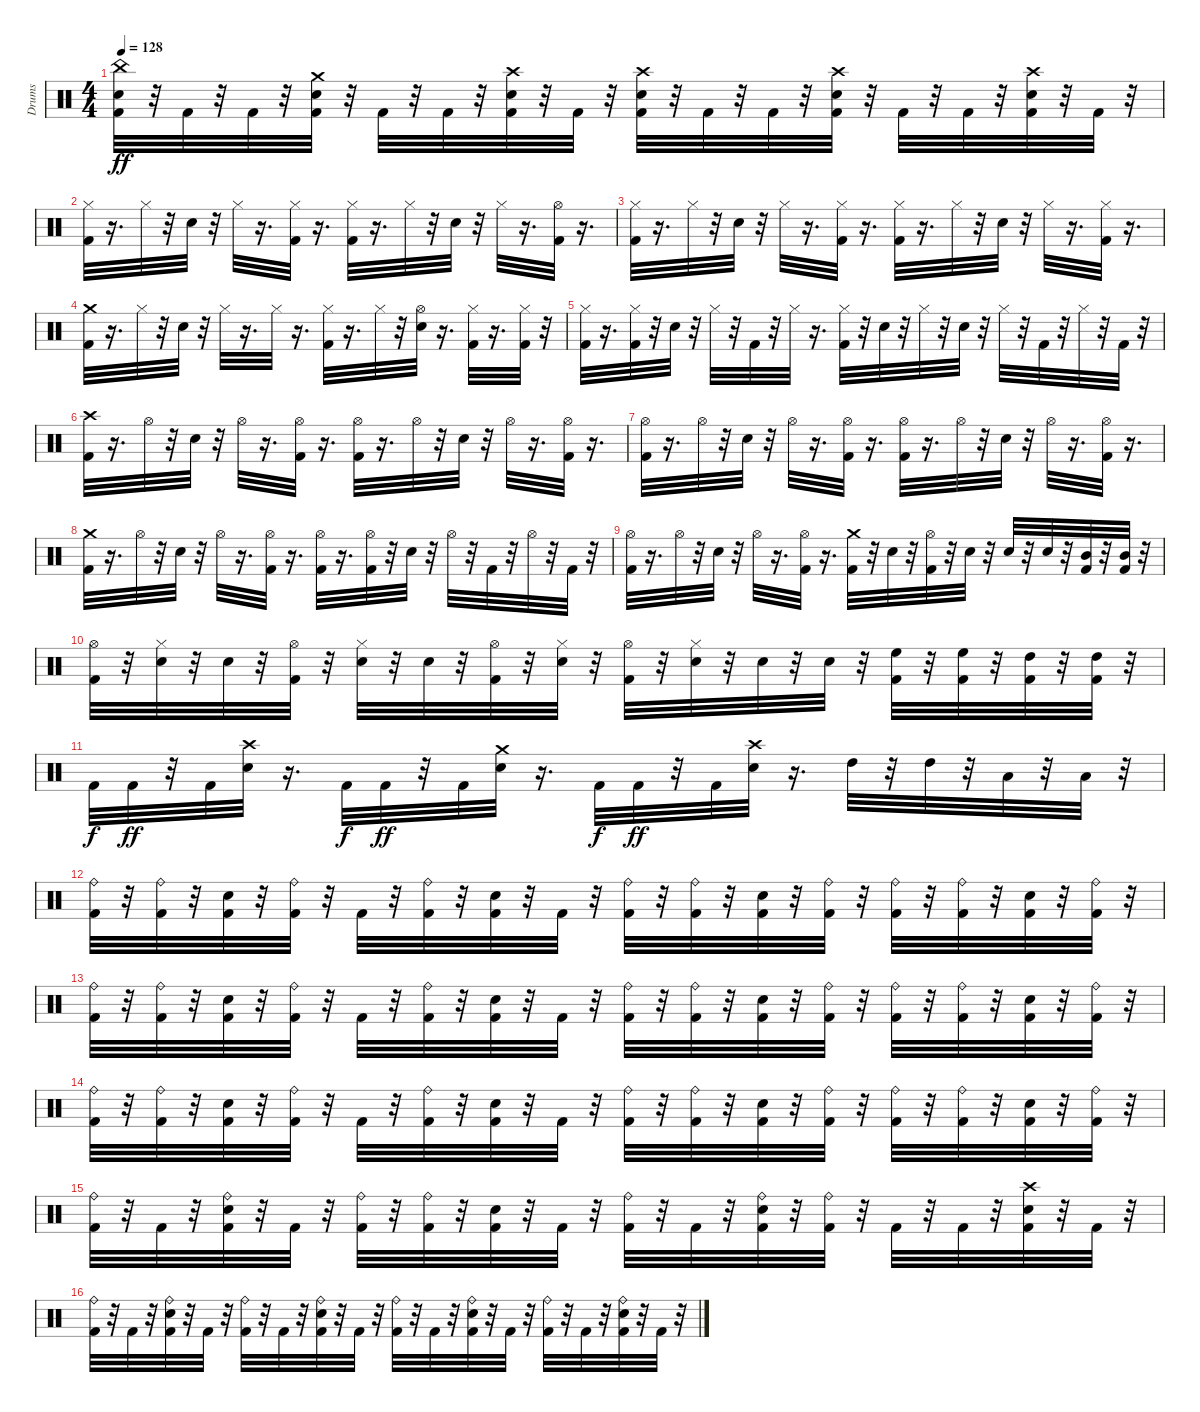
\track ("Drums" "Drums") {instrument percussion}
\staff {score}
\articulation defaults
\ts (4 4)
\tempo 128
\clef neutral
\ks c
("China (hit)" "Snare (hit) 2" "Kick (hit) 2").32{dy ff} r.32 "Kick (hit) 2".32 r.32 "Kick (hit) 2".32 r.32 ("Crash medium (hit)" "Snare (hit) 2" "Kick (hit) 2").32 r.32 "Kick (hit) 2".32 r.32 "Kick (hit) 2".32 r.32 ("Crash high (hit)" "Snare (hit) 2" "Kick (hit) 2").32 r.32 "Kick (hit) 2".32 r.32 ("Crash high (hit)" "Snare (hit) 2" "Kick (hit) 2").32 r.32 "Kick (hit) 2".32 r.32 "Kick (hit) 2".32 r.32 ("Crash high (hit)" "Snare (hit) 2" "Kick (hit) 2").32 r.32 "Kick (hit) 2".32 r.32 "Kick (hit) 2".32 r.32 ("Crash high (hit)" "Snare (hit) 2" "Kick (hit) 2").32 r.32 "Kick (hit) 2".32 r.32 |
("Kick (hit) 2" "Hi-Hat (closed)").32 r.16{d} "Hi-Hat (closed)".32 r.32 "Snare (hit) 2".32 r.32 "Hi-Hat (closed)".32 r.16{d} ("Hi-Hat (closed)" "Kick (hit) 2").32 r.16{d} ("Hi-Hat (closed)" "Kick (hit) 2").32 r.16{d} "Hi-Hat (closed)".32 r.32 "Snare (hit) 2".32 r.32 "Hi-Hat (closed)".32 r.16{d} ("Kick (hit) 2" "Hi-Hat (open)").32 r.16{d} |
("Kick (hit) 2" "Hi-Hat (closed)").32 r.16{d} "Hi-Hat (closed)".32 r.32 "Snare (hit) 2".32 r.32 "Hi-Hat (closed)".32 r.16{d} ("Kick (hit) 2" "Hi-Hat (closed)").32 r.16{d} ("Kick (hit) 2" "Hi-Hat (closed)").32 r.16{d} "Hi-Hat (closed)".32 r.32 "Snare (hit) 2".32 r.32 "Hi-Hat (closed)".32 r.16{d} ("Hi-Hat (closed)" "Kick (hit) 2").32 r.16{d} |
("Kick (hit) 2" "Crash medium (hit)").32 r.16{d} "Hi-Hat (closed)".32 r.32 "Snare (hit) 2".32 r.32 "Hi-Hat (closed)".32 r.16{d} "Hi-Hat (closed)".32 r.16{d} ("Hi-Hat (closed)" "Kick (hit) 2").32 r.16{d} "Hi-Hat (closed)".32 r.32 ("Snare (hit) 2" "Hi-Hat (open)").32 r.16{d} ("Kick (hit) 2" "Hi-Hat (closed)").32 r.16{d} ("Hi-Hat (closed)" "Kick (hit) 2").32 r.32 |
("Hi-Hat (closed)" "Kick (hit) 2").32 r.16{d} ("Kick (hit) 2" "Hi-Hat (closed)").32 r.32 "Snare (hit) 2".32 r.32 "Hi-Hat (closed)".32 r.32 "Kick (hit) 2".32 r.32 "Hi-Hat (closed)".32 r.16{d} ("Kick (hit) 2" "Hi-Hat (closed)").32 r.32 "Snare (hit) 2".32 r.32 "Hi-Hat (closed)".32 r.32 "Snare (hit) 2".32 r.32 "Hi-Hat (closed)".32 r.32 "Kick (hit) 2".32 r.32 "Hi-Hat (closed)".32 r.32 "Kick (hit) 2".32 r.32 |
("Crash high (hit)" "Kick (hit) 2").32 r.16{d} "Hi-Hat (open)".32 r.32 "Snare (hit) 2".32 r.32 "Hi-Hat (open)".32 r.16{d} ("Hi-Hat (open)" "Kick (hit) 2").32 r.16{d} ("Hi-Hat (open)" "Kick (hit) 2").32 r.16{d} "Hi-Hat (open)".32 r.32 "Snare (hit) 2".32 r.32 "Hi-Hat (open)".32 r.16{d} ("Kick (hit) 2" "Hi-Hat (open)").32 r.16{d} |
("Hi-Hat (open)" "Kick (hit) 2").32 r.16{d} "Hi-Hat (open)".32 r.32 "Snare (hit) 2".32 r.32 "Hi-Hat (open)".32 r.16{d} ("Hi-Hat (open)" "Kick (hit) 2").32 r.16{d} ("Hi-Hat (open)" "Kick (hit) 2").32 r.16{d} "Hi-Hat (open)".32 r.32 "Snare (hit) 2".32 r.32 "Hi-Hat (open)".32 r.16{d} ("Kick (hit) 2" "Hi-Hat (open)").32 r.16{d} |
("Crash medium (hit)" "Kick (hit) 2").32 r.16{d} "Hi-Hat (open)".32 r.32 "Snare (hit) 2".32 r.32 "Hi-Hat (open)".32 r.16{d} ("Hi-Hat (open)" "Kick (hit) 2").32 r.16{d} ("Hi-Hat (open)" "Kick (hit) 2").32 r.16{d} ("Kick (hit) 2" "Hi-Hat (open)").32 r.32 "Snare (hit) 2".32 r.32 "Hi-Hat (open)".32 r.32 "Kick (hit) 2".32 r.32 "Hi-Hat (open)".32 r.32 "Kick (hit) 2".32 r.32 |
("Kick (hit) 2" "Hi-Hat (open)").32 r.16{d} "Hi-Hat (open)".32 r.32 "Snare (hit) 2".32 r.32 "Hi-Hat (open)".32 r.16{d} ("Kick (hit) 2" "Hi-Hat (open)").32 r.16{d} ("Kick (hit) 2" "Crash medium (hit)").32 r.32 "Snare (hit) 2".32 r.32 ("Hi-Hat (open)" "Kick (hit) 2").32 r.32 "Snare (hit) 2".32 r.32 "Snare (hit) 2".32 r.32 "Snare (hit) 2".32 r.32 ("Mid Tom (hit)" "Kick (hit) 2").32 r.32 ("Kick (hit) 2" "Mid Tom (hit)").32 r.32 |
("Hi-Hat (open)" "Kick (hit) 2").32 r.32 ("Hi-Hat (closed)" "Snare (hit) 2").32 r.32 "Snare (hit) 2".32 r.32 ("Hi-Hat (open)" "Kick (hit) 2").32 r.32 ("Hi-Hat (closed)" "Snare (hit) 2").32 r.32 "Snare (hit) 2".32 r.32 ("Hi-Hat (open)" "Kick (hit) 2").32 r.32 ("Hi-Hat (closed)" "Snare (hit) 2").32 r.32 ("Kick (hit) 2" "Hi-Hat (open)").32 r.32 ("Hi-Hat (closed)" "Snare (hit) 2").32 r.32 "Snare (hit) 2".32 r.32 "Snare (hit) 2".32 r.32 ("Kick (hit) 2" "High Floor Tom (hit)").32 r.32 ("High Floor Tom (hit)" "Kick (hit) 2").32 r.32 ("Kick (hit) 2" "High Tom (hit)").32 r.32 ("Kick (hit) 2" "High Tom (hit)").32 r.32 |
"Kick (hit) 2".32{dy f} "Kick (hit) 2".32{dy ff} r.32 "Kick (hit) 2".32 ("Crash high (hit)" "Snare (hit) 2").32 r.16{d} "Kick (hit) 2".32{dy f} "Kick (hit) 2".32{dy ff} r.32 "Kick (hit) 2".32 ("Crash medium (hit)" "Snare (hit) 2").32 r.16{d} "Kick (hit) 2".32{dy f} "Kick (hit) 2".32{dy ff} r.32 "Kick (hit) 2".32 ("Crash high (hit)" "Snare (hit) 2").32 r.16{d} "High Tom (hit)".32 r.32 "High Tom (hit)".32 r.32 "Low Tom (hit)".32 r.32 "Low Tom (hit)".32 r.32 |
("Kick (hit) 2" "Ride (bell)").32 r.32 ("Kick (hit) 2" "Ride (bell)").32 r.32 ("Kick (hit) 2" "Snare (hit) 2").32 r.32 ("Kick (hit) 2" "Ride (bell)").32 r.32 "Kick (hit) 2".32 r.32 ("Ride (bell)" "Kick (hit) 2").32 r.32 ("Kick (hit) 2" "Snare (hit) 2").32 r.32 "Kick (hit) 2".32 r.32 ("Ride (bell)" "Kick (hit) 2").32 r.32 ("Ride (bell)" "Kick (hit) 2").32 r.32 ("Kick (hit) 2" "Snare (hit) 2").32 r.32 ("Ride (bell)" "Kick (hit) 2").32 r.32 ("Kick (hit) 2" "Ride (bell)").32 r.32 ("Ride (bell)" "Kick (hit) 2").32 r.32 ("Snare (hit) 2" "Kick (hit) 2").32 r.32 ("Kick (hit) 2" "Ride (bell)").32 r.32 |
("Kick (hit) 2" "Ride (bell)").32 r.32 ("Kick (hit) 2" "Ride (bell)").32 r.32 ("Kick (hit) 2" "Snare (hit) 2").32 r.32 ("Kick (hit) 2" "Ride (bell)").32 r.32 "Kick (hit) 2".32 r.32 ("Ride (bell)" "Kick (hit) 2").32 r.32 ("Kick (hit) 2" "Snare (hit) 2").32 r.32 "Kick (hit) 2".32 r.32 ("Ride (bell)" "Kick (hit) 2").32 r.32 ("Ride (bell)" "Kick (hit) 2").32 r.32 ("Kick (hit) 2" "Snare (hit) 2").32 r.32 ("Ride (bell)" "Kick (hit) 2").32 r.32 ("Kick (hit) 2" "Ride (bell)").32 r.32 ("Ride (bell)" "Kick (hit) 2").32 r.32 ("Snare (hit) 2" "Kick (hit) 2").32 r.32 ("Kick (hit) 2" "Ride (bell)").32 r.32 |
("Kick (hit) 2" "Ride (bell)").32 r.32 ("Kick (hit) 2" "Ride (bell)").32 r.32 ("Kick (hit) 2" "Snare (hit) 2").32 r.32 ("Kick (hit) 2" "Ride (bell)").32 r.32 "Kick (hit) 2".32 r.32 ("Ride (bell)" "Kick (hit) 2").32 r.32 ("Kick (hit) 2" "Snare (hit) 2").32 r.32 "Kick (hit) 2".32 r.32 ("Ride (bell)" "Kick (hit) 2").32 r.32 ("Ride (bell)" "Kick (hit) 2").32 r.32 ("Kick (hit) 2" "Snare (hit) 2").32 r.32 ("Ride (bell)" "Kick (hit) 2").32 r.32 ("Kick (hit) 2" "Ride (bell)").32 r.32 ("Ride (bell)" "Kick (hit) 2").32 r.32 ("Snare (hit) 2" "Kick (hit) 2").32 r.32 ("Kick (hit) 2" "Ride (bell)").32 r.32 |
("Kick (hit) 2" "Ride (bell)").32 r.32 "Kick (hit) 2".32 r.32 ("Kick (hit) 2" "Snare (hit) 2" "Ride (bell)").32 r.32 "Kick (hit) 2".32 r.32 ("Kick (hit) 2" "Ride (bell)").32 r.32 ("Ride (bell)" "Kick (hit) 2").32 r.32 ("Kick (hit) 2" "Snare (hit) 2").32 r.32 "Kick (hit) 2".32 r.32 ("Ride (bell)" "Kick (hit) 2").32 r.32 "Kick (hit) 2".32 r.32 ("Kick (hit) 2" "Snare (hit) 2" "Ride (bell)").32 r.32 ("Kick (hit) 2" "Ride (bell)").32 r.32 "Kick (hit) 2".32 r.32 "Kick (hit) 2".32 r.32 ("Crash high (hit)" "Snare (hit) 2" "Kick (hit) 2").32 r.32 "Kick (hit) 2".32 r.32 |
("Kick (hit) 2" "Ride (bell)").32 r.32 "Kick (hit) 2".32 r.32 ("Ride (bell)" "Kick (hit) 2" "Snare (hit) 2").32 r.32 "Kick (hit) 2".32 r.32 ("Ride (bell)" "Kick (hit) 2").32 r.32 "Kick (hit) 2".32 r.32 ("Kick (hit) 2" "Snare (hit) 2" "Ride (bell)").32 r.32 "Kick (hit) 2".32 r.32 ("Kick (hit) 2" "Ride (bell)").32 r.32 "Kick (hit) 2".32 r.32 ("Snare (hit) 2" "Kick (hit) 2" "Ride (bell)").32 r.32 "Kick (hit) 2".32 r.32 ("Kick (hit) 2" "Ride (bell)").32 r.32 "Kick (hit) 2".32 r.32 ("Ride (bell)" "Kick (hit) 2" "Snare (hit) 2").32 r.32 "Kick (hit) 2".32 r.32
